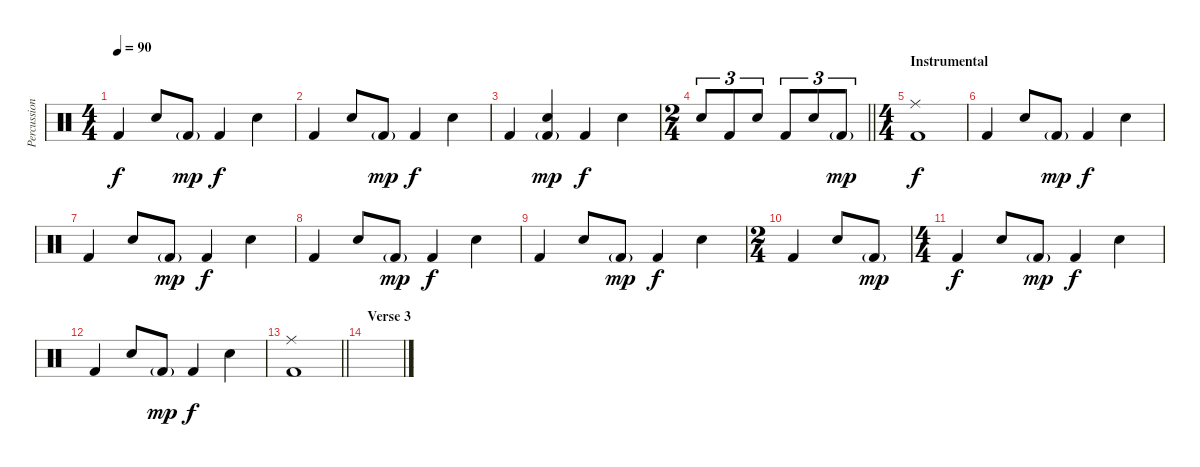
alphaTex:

\track ("Percussion" "Percussion") {instrument percussion}
\staff {score}
\articulation defaults
\ts (4 4)
\tempo 90
\clef neutral
\ks c "Kick (hit) 2".4{dy f} "Snare (hit) 2".8 "Kick (hit) 2"{g}.8{dy mp} "Kick (hit) 2".4{dy f} "Snare (hit) 2".4
|
"Kick (hit) 2".4 "Snare (hit) 2".8 "Kick (hit) 2"{g}.8{dy mp} "Kick (hit) 2".4{dy f} "Snare (hit) 2".4 |
"Kick (hit) 2".4 ("Snare (hit) 2" "Kick (hit) 2"{g}).4{dy mp} "Kick (hit) 2".4{dy f} "Snare (hit) 2".4 |
\ts (2 4)
\barLineRight lightlight "Snare (hit) 2".8{tu (3 2)} "Kick (hit) 2".8{tu (3 2)} "Snare (hit) 2".8{tu (3 2)} "Kick (hit) 2".8{tu (3 2)} "Snare (hit) 2".8{tu (3 2)} "Kick (hit) 2"{g}.8{tu (3 2) dy mp}
|
\ts (4 4)
\section ("" "Instrumental")
("Ride (middle)" "Kick (hit) 2").1{dy f} |
"Kick (hit) 2".4 "Snare (hit) 2".8 "Kick (hit) 2"{g}.8{dy mp} "Kick (hit) 2".4{dy f} "Snare (hit) 2".4 |
"Kick (hit) 2".4 "Snare (hit) 2".8 "Kick (hit) 2"{g}.8{dy mp} "Kick (hit) 2".4{dy f} "Snare (hit) 2".4 |
"Kick (hit) 2".4 "Snare (hit) 2".8 "Kick (hit) 2"{g}.8{dy mp} "Kick (hit) 2".4{dy f} "Snare (hit) 2".4 |
"Kick (hit) 2".4 "Snare (hit) 2".8 "Kick (hit) 2"{g}.8{dy mp} "Kick (hit) 2".4{dy f} "Snare (hit) 2".4 |
\ts (2 4)
"Kick (hit) 2".4 "Snare (hit) 2".8 "Kick (hit) 2"{g}.8{dy mp} |
\ts (4 4)
"Kick (hit) 2".4{dy f} "Snare (hit) 2".8 "Kick (hit) 2"{g}.8{dy mp} "Kick (hit) 2".4{dy f} "Snare (hit) 2".4 |
"Kick (hit) 2".4 "Snare (hit) 2".8 "Kick (hit) 2"{g}.8{dy mp} "Kick (hit) 2".4{dy f} "Snare (hit) 2".4 |
\barLineRight lightlight
("Ride (middle)" "Kick (hit) 2").1 |
\section ("" "Verse 3")
